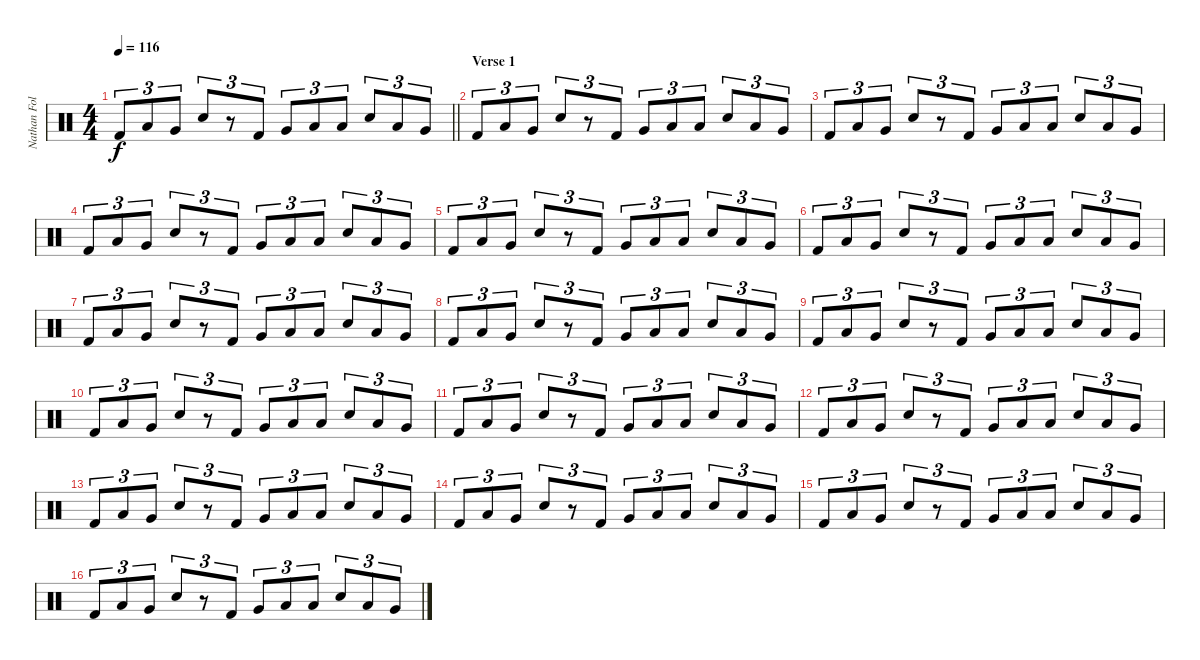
\track ("Nathan Followill" "Nathan Fol") {instrument percussion}
\staff {score}
\articulation defaults
\ts (4 4)
\tempo 116
\clef neutral
\barLineRight lightlight
\ks c "Kick (hit) 2".8{tu (3 2) dy f} "Low Tom (hit)".8{tu (3 2)} "Very Low Tom (hit)".8{tu (3 2)} "Electric Snare (hit)".8{tu (3 2)}
r.8{tu (3 2)} "Kick (hit) 2".8{tu (3 2)} "Very Low Tom (hit)".8{tu (3 2)} "Low Tom (hit)".8{tu (3 2)} "Low Floor Tom (hit)".8{tu (3 2)} "Electric Snare (hit)".8{tu (3 2)} "Low Tom (hit)".8{tu (3 2)} "Very Low Tom (hit)".8{tu (3 2)} |
\section ("" "Verse 1")
"Kick (hit) 2".8{tu (3 2)} "Low Tom (hit)".8{tu (3 2)} "Very Low Tom (hit)".8{tu (3 2)} "Electric Snare (hit)".8{tu (3 2)} r.8{tu (3 2)} "Kick (hit) 2".8{tu (3 2)} "Very Low Tom (hit)".8{tu (3 2)} "Low Tom (hit)".8{tu (3 2)} "Low Floor Tom (hit)".8{tu (3 2)} "Electric Snare (hit)".8{tu (3 2)} "Low Tom (hit)".8{tu (3 2)} "Very Low Tom (hit)".8{tu (3 2)} |
"Kick (hit) 2".8{tu (3 2)} "Low Tom (hit)".8{tu (3 2)} "Very Low Tom (hit)".8{tu (3 2)} "Electric Snare (hit)".8{tu (3 2)} r.8{tu (3 2)} "Kick (hit) 2".8{tu (3 2)} "Very Low Tom (hit)".8{tu (3 2)} "Low Tom (hit)".8{tu (3 2)} "Low Floor Tom (hit)".8{tu (3 2)} "Electric Snare (hit)".8{tu (3 2)} "Low Tom (hit)".8{tu (3 2)} "Very Low Tom (hit)".8{tu (3 2)} |
"Kick (hit) 2".8{tu (3 2)} "Low Tom (hit)".8{tu (3 2)} "Very Low Tom (hit)".8{tu (3 2)} "Electric Snare (hit)".8{tu (3 2)} r.8{tu (3 2)} "Kick (hit) 2".8{tu (3 2)} "Very Low Tom (hit)".8{tu (3 2)} "Low Tom (hit)".8{tu (3 2)} "Low Floor Tom (hit)".8{tu (3 2)} "Electric Snare (hit)".8{tu (3 2)} "Low Tom (hit)".8{tu (3 2)} "Very Low Tom (hit)".8{tu (3 2)} |
"Kick (hit) 2".8{tu (3 2)} "Low Tom (hit)".8{tu (3 2)} "Very Low Tom (hit)".8{tu (3 2)} "Electric Snare (hit)".8{tu (3 2)} r.8{tu (3 2)} "Kick (hit) 2".8{tu (3 2)} "Very Low Tom (hit)".8{tu (3 2)} "Low Tom (hit)".8{tu (3 2)} "Low Floor Tom (hit)".8{tu (3 2)} "Electric Snare (hit)".8{tu (3 2)} "Low Tom (hit)".8{tu (3 2)} "Very Low Tom (hit)".8{tu (3 2)} |
"Kick (hit) 2".8{tu (3 2)} "Low Tom (hit)".8{tu (3 2)} "Very Low Tom (hit)".8{tu (3 2)} "Electric Snare (hit)".8{tu (3 2)} r.8{tu (3 2)} "Kick (hit) 2".8{tu (3 2)} "Very Low Tom (hit)".8{tu (3 2)} "Low Tom (hit)".8{tu (3 2)} "Low Floor Tom (hit)".8{tu (3 2)} "Electric Snare (hit)".8{tu (3 2)} "Low Tom (hit)".8{tu (3 2)} "Very Low Tom (hit)".8{tu (3 2)} |
"Kick (hit) 2".8{tu (3 2)} "Low Tom (hit)".8{tu (3 2)} "Very Low Tom (hit)".8{tu (3 2)} "Electric Snare (hit)".8{tu (3 2)} r.8{tu (3 2)} "Kick (hit) 2".8{tu (3 2)} "Very Low Tom (hit)".8{tu (3 2)} "Low Tom (hit)".8{tu (3 2)} "Low Floor Tom (hit)".8{tu (3 2)} "Electric Snare (hit)".8{tu (3 2)} "Low Tom (hit)".8{tu (3 2)} "Very Low Tom (hit)".8{tu (3 2)} |
"Kick (hit) 2".8{tu (3 2)} "Low Tom (hit)".8{tu (3 2)} "Very Low Tom (hit)".8{tu (3 2)} "Electric Snare (hit)".8{tu (3 2)} r.8{tu (3 2)} "Kick (hit) 2".8{tu (3 2)} "Very Low Tom (hit)".8{tu (3 2)} "Low Tom (hit)".8{tu (3 2)} "Low Floor Tom (hit)".8{tu (3 2)} "Electric Snare (hit)".8{tu (3 2)} "Low Tom (hit)".8{tu (3 2)} "Very Low Tom (hit)".8{tu (3 2)} |
"Kick (hit) 2".8{tu (3 2)} "Low Tom (hit)".8{tu (3 2)} "Very Low Tom (hit)".8{tu (3 2)} "Electric Snare (hit)".8{tu (3 2)} r.8{tu (3 2)} "Kick (hit) 2".8{tu (3 2)} "Very Low Tom (hit)".8{tu (3 2)} "Low Tom (hit)".8{tu (3 2)} "Low Floor Tom (hit)".8{tu (3 2)} "Electric Snare (hit)".8{tu (3 2)} "Low Tom (hit)".8{tu (3 2)} "Very Low Tom (hit)".8{tu (3 2)} |
"Kick (hit) 2".8{tu (3 2)} "Low Tom (hit)".8{tu (3 2)} "Very Low Tom (hit)".8{tu (3 2)} "Electric Snare (hit)".8{tu (3 2)} r.8{tu (3 2)} "Kick (hit) 2".8{tu (3 2)} "Very Low Tom (hit)".8{tu (3 2)} "Low Tom (hit)".8{tu (3 2)} "Low Floor Tom (hit)".8{tu (3 2)} "Electric Snare (hit)".8{tu (3 2)} "Low Tom (hit)".8{tu (3 2)} "Very Low Tom (hit)".8{tu (3 2)} |
"Kick (hit) 2".8{tu (3 2)} "Low Tom (hit)".8{tu (3 2)} "Very Low Tom (hit)".8{tu (3 2)} "Electric Snare (hit)".8{tu (3 2)} r.8{tu (3 2)} "Kick (hit) 2".8{tu (3 2)} "Very Low Tom (hit)".8{tu (3 2)} "Low Tom (hit)".8{tu (3 2)} "Low Floor Tom (hit)".8{tu (3 2)} "Electric Snare (hit)".8{tu (3 2)} "Low Tom (hit)".8{tu (3 2)} "Very Low Tom (hit)".8{tu (3 2)} |
"Kick (hit) 2".8{tu (3 2)} "Low Tom (hit)".8{tu (3 2)} "Very Low Tom (hit)".8{tu (3 2)} "Electric Snare (hit)".8{tu (3 2)} r.8{tu (3 2)} "Kick (hit) 2".8{tu (3 2)} "Very Low Tom (hit)".8{tu (3 2)} "Low Tom (hit)".8{tu (3 2)} "Low Floor Tom (hit)".8{tu (3 2)} "Electric Snare (hit)".8{tu (3 2)} "Low Tom (hit)".8{tu (3 2)} "Very Low Tom (hit)".8{tu (3 2)} |
"Kick (hit) 2".8{tu (3 2)} "Low Tom (hit)".8{tu (3 2)} "Very Low Tom (hit)".8{tu (3 2)} "Electric Snare (hit)".8{tu (3 2)} r.8{tu (3 2)} "Kick (hit) 2".8{tu (3 2)} "Very Low Tom (hit)".8{tu (3 2)} "Low Tom (hit)".8{tu (3 2)} "Low Floor Tom (hit)".8{tu (3 2)} "Electric Snare (hit)".8{tu (3 2)} "Low Tom (hit)".8{tu (3 2)} "Very Low Tom (hit)".8{tu (3 2)} |
"Kick (hit) 2".8{tu (3 2)} "Low Tom (hit)".8{tu (3 2)} "Very Low Tom (hit)".8{tu (3 2)} "Electric Snare (hit)".8{tu (3 2)} r.8{tu (3 2)} "Kick (hit) 2".8{tu (3 2)} "Very Low Tom (hit)".8{tu (3 2)} "Low Tom (hit)".8{tu (3 2)} "Low Floor Tom (hit)".8{tu (3 2)} "Electric Snare (hit)".8{tu (3 2)} "Low Tom (hit)".8{tu (3 2)} "Very Low Tom (hit)".8{tu (3 2)} |
"Kick (hit) 2".8{tu (3 2)} "Low Tom (hit)".8{tu (3 2)} "Very Low Tom (hit)".8{tu (3 2)} "Electric Snare (hit)".8{tu (3 2)} r.8{tu (3 2)} "Kick (hit) 2".8{tu (3 2)} "Very Low Tom (hit)".8{tu (3 2)} "Low Tom (hit)".8{tu (3 2)} "Low Floor Tom (hit)".8{tu (3 2)} "Electric Snare (hit)".8{tu (3 2)} "Low Tom (hit)".8{tu (3 2)} "Very Low Tom (hit)".8{tu (3 2)} |
"Kick (hit) 2".8{tu (3 2)} "Low Tom (hit)".8{tu (3 2)} "Very Low Tom (hit)".8{tu (3 2)} "Electric Snare (hit)".8{tu (3 2)} r.8{tu (3 2)} "Kick (hit) 2".8{tu (3 2)} "Very Low Tom (hit)".8{tu (3 2)} "Low Tom (hit)".8{tu (3 2)} "Low Floor Tom (hit)".8{tu (3 2)} "Electric Snare (hit)".8{tu (3 2)} "Low Tom (hit)".8{tu (3 2)} "Very Low Tom (hit)".8{tu (3 2)}
